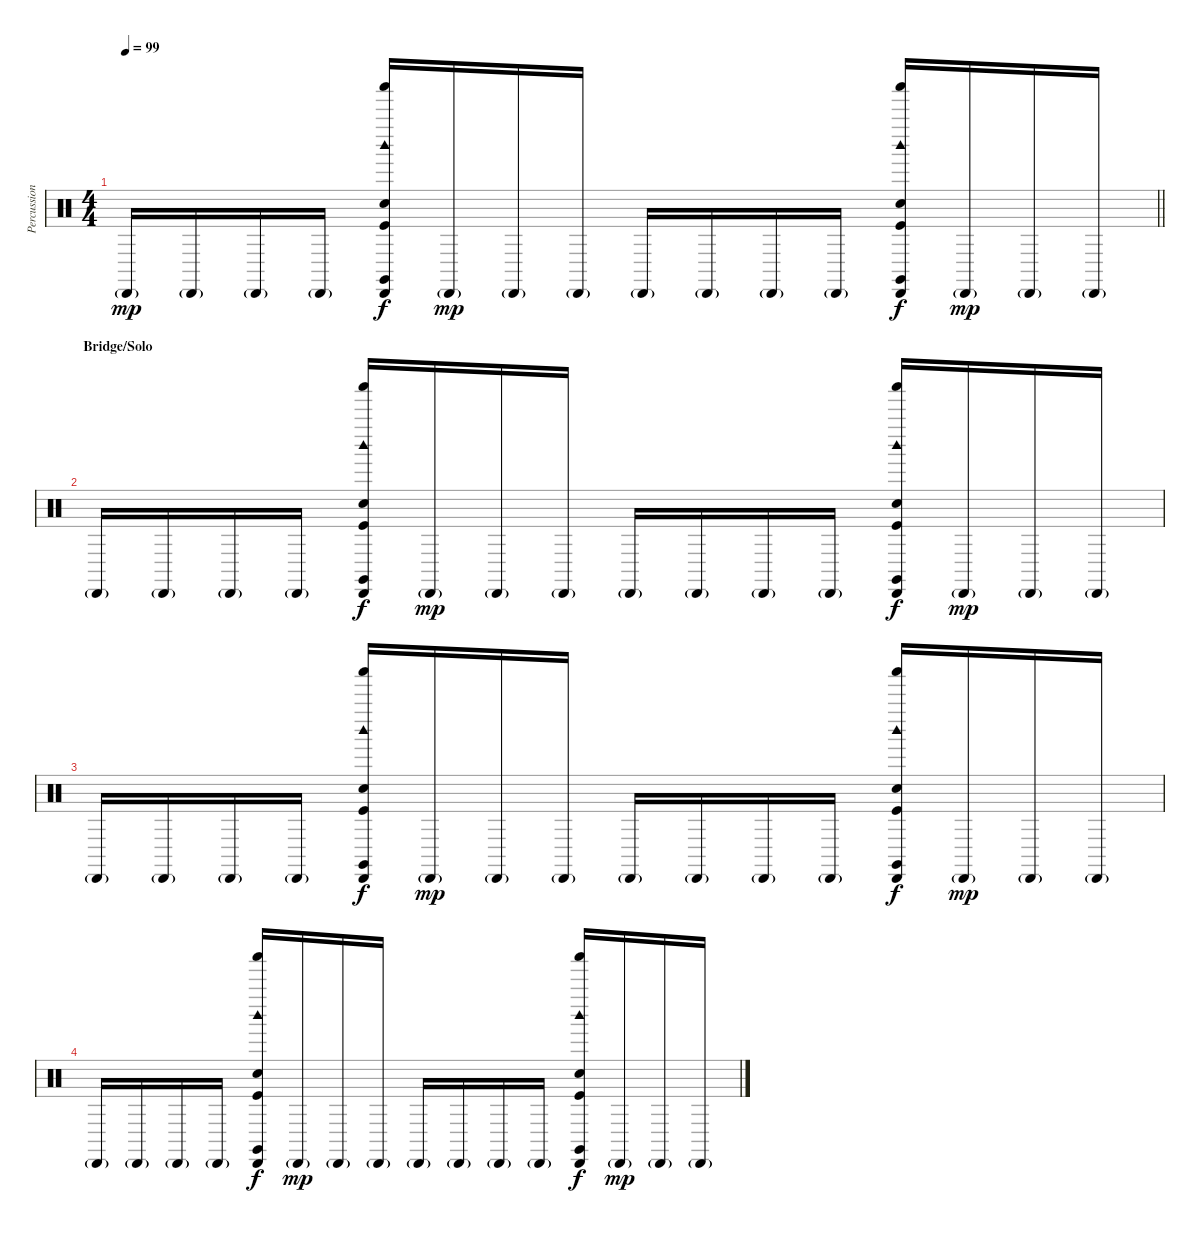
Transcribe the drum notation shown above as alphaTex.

\track ("Percussion" "Percussion") {instrument percussion}
\staff {score}
\articulation defaults
\ts (4 4)
\tempo 99
\clef neutral
\barLineRight lightlight
\ks c "Cabasa (hit)"{g}.16{dy mp} "Cabasa (hit)"{g}.16 "Cabasa (hit)"{g}.16 "Cabasa (hit)"{g}.16
("Cabasa (hit)" "Shaker (hit)" "Claves (hit)" "Woodblock high (hit)" "Hand Clap (hit)" "Kick (hit)").16{dy f} "Cabasa (hit)"{g}.16{dy mp} "Cabasa (hit)"{g}.16 "Cabasa (hit)"{g}.16 "Cabasa (hit)"{g}.16 "Cabasa (hit)"{g}.16 "Cabasa (hit)"{g}.16 "Cabasa (hit)"{g}.16 ("Cabasa (hit)" "Shaker (hit)" "Claves (hit)" "Woodblock high (hit)" "Hand Clap (hit)" "Kick (hit)").16{dy f} "Cabasa (hit)"{g}.16{dy mp} "Cabasa (hit)"{g}.16 "Cabasa (hit)"{g}.16 |
\section ("" "Bridge/Solo")
"Cabasa (hit)"{g}.16 "Cabasa (hit)"{g}.16 "Cabasa (hit)"{g}.16 "Cabasa (hit)"{g}.16 ("Cabasa (hit)" "Shaker (hit)" "Claves (hit)" "Woodblock high (hit)" "Hand Clap (hit)" "Kick (hit)").16{dy f} "Cabasa (hit)"{g}.16{dy mp} "Cabasa (hit)"{g}.16 "Cabasa (hit)"{g}.16 "Cabasa (hit)"{g}.16 "Cabasa (hit)"{g}.16 "Cabasa (hit)"{g}.16 "Cabasa (hit)"{g}.16 ("Cabasa (hit)" "Shaker (hit)" "Claves (hit)" "Woodblock high (hit)" "Hand Clap (hit)" "Kick (hit)").16{dy f} "Cabasa (hit)"{g}.16{dy mp} "Cabasa (hit)"{g}.16 "Cabasa (hit)"{g}.16 |
"Cabasa (hit)"{g}.16 "Cabasa (hit)"{g}.16 "Cabasa (hit)"{g}.16 "Cabasa (hit)"{g}.16 ("Cabasa (hit)" "Shaker (hit)" "Claves (hit)" "Woodblock high (hit)" "Hand Clap (hit)" "Kick (hit)").16{dy f} "Cabasa (hit)"{g}.16{dy mp} "Cabasa (hit)"{g}.16 "Cabasa (hit)"{g}.16 "Cabasa (hit)"{g}.16 "Cabasa (hit)"{g}.16 "Cabasa (hit)"{g}.16 "Cabasa (hit)"{g}.16 ("Cabasa (hit)" "Shaker (hit)" "Claves (hit)" "Woodblock high (hit)" "Hand Clap (hit)" "Kick (hit)").16{dy f} "Cabasa (hit)"{g}.16{dy mp} "Cabasa (hit)"{g}.16 "Cabasa (hit)"{g}.16 |
"Cabasa (hit)"{g}.16 "Cabasa (hit)"{g}.16 "Cabasa (hit)"{g}.16 "Cabasa (hit)"{g}.16 ("Cabasa (hit)" "Shaker (hit)" "Claves (hit)" "Woodblock high (hit)" "Hand Clap (hit)" "Kick (hit)").16{dy f} "Cabasa (hit)"{g}.16{dy mp} "Cabasa (hit)"{g}.16 "Cabasa (hit)"{g}.16 "Cabasa (hit)"{g}.16 "Cabasa (hit)"{g}.16 "Cabasa (hit)"{g}.16 "Cabasa (hit)"{g}.16 ("Cabasa (hit)" "Shaker (hit)" "Claves (hit)" "Woodblock high (hit)" "Hand Clap (hit)" "Kick (hit)").16{dy f} "Cabasa (hit)"{g}.16{dy mp} "Cabasa (hit)"{g}.16 "Cabasa (hit)"{g}.16
